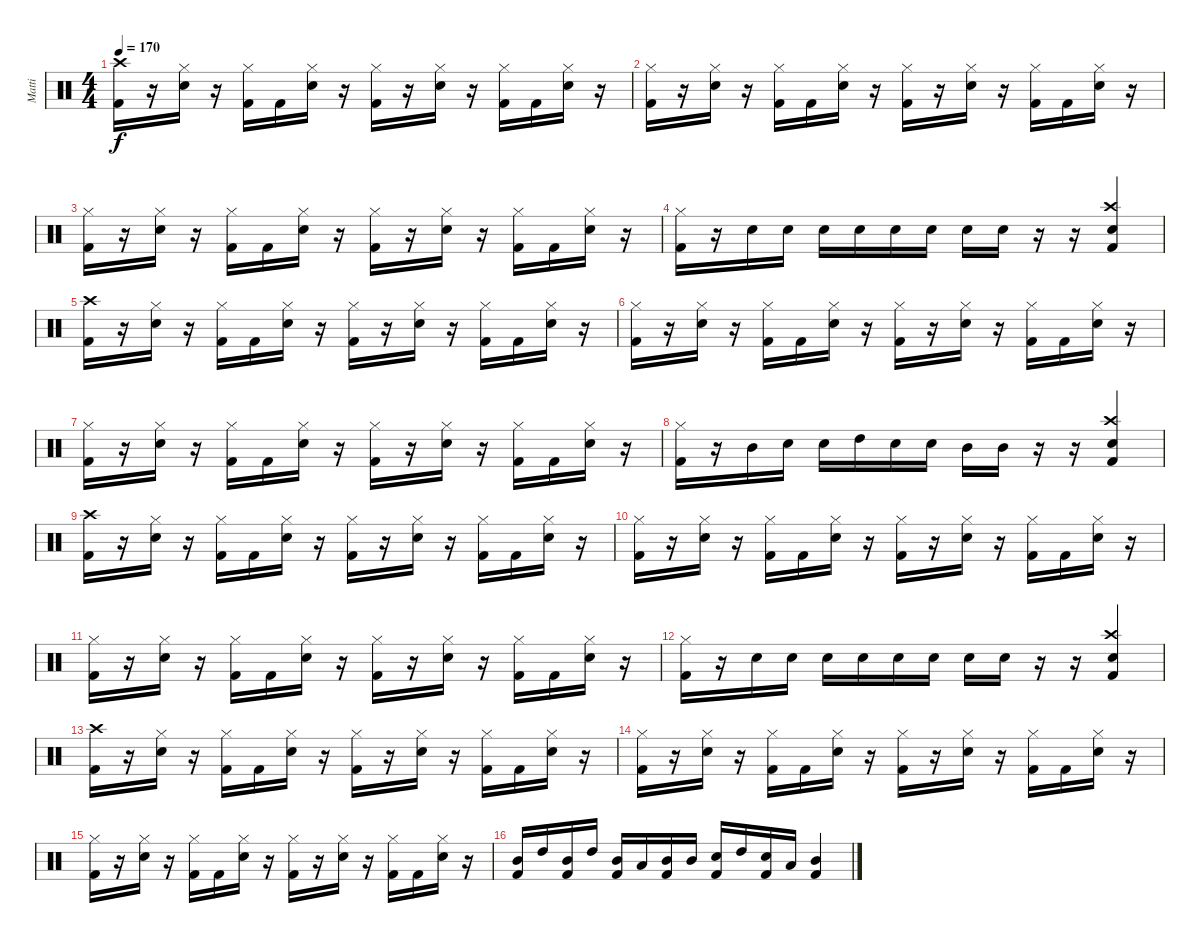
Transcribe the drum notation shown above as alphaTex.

\track ("Matti" "Matti") {instrument percussion}
\staff {score}
\articulation defaults
\ts (4 4)
\tempo 170
\clef neutral
\ks c
("Kick (hit) 2" "Crash high (hit)").16{dy f} r.16 ("Snare (hit) 2" "Hi-Hat (closed)").16 r.16 ("Kick (hit) 2" "Hi-Hat (closed)").16 "Kick (hit) 2".16 ("Snare (hit) 2" "Hi-Hat (closed)").16 r.16 ("Kick (hit) 2" "Hi-Hat (closed)").16 r.16 ("Snare (hit) 2" "Hi-Hat (closed)").16 r.16 ("Kick (hit) 2" "Hi-Hat (closed)").16 "Kick (hit) 2".16 ("Snare (hit) 2" "Hi-Hat (closed)").16 r.16 |
("Kick (hit) 2" "Hi-Hat (closed)").16 r.16 ("Snare (hit) 2" "Hi-Hat (closed)").16 r.16 ("Kick (hit) 2" "Hi-Hat (closed)").16 "Kick (hit) 2".16 ("Snare (hit) 2" "Hi-Hat (closed)").16 r.16 ("Kick (hit) 2" "Hi-Hat (closed)").16 r.16 ("Snare (hit) 2" "Hi-Hat (closed)").16 r.16 ("Kick (hit) 2" "Hi-Hat (closed)").16 "Kick (hit) 2".16 ("Snare (hit) 2" "Hi-Hat (closed)").16 r.16 |
("Kick (hit) 2" "Hi-Hat (closed)").16 r.16 ("Snare (hit) 2" "Hi-Hat (closed)").16 r.16 ("Kick (hit) 2" "Hi-Hat (closed)").16 "Kick (hit) 2".16 ("Snare (hit) 2" "Hi-Hat (closed)").16 r.16 ("Kick (hit) 2" "Hi-Hat (closed)").16 r.16 ("Snare (hit) 2" "Hi-Hat (closed)").16 r.16 ("Kick (hit) 2" "Hi-Hat (closed)").16 "Kick (hit) 2".16 ("Snare (hit) 2" "Hi-Hat (closed)").16 r.16 |
("Kick (hit) 2" "Hi-Hat (closed)").16 r.16 "Snare (hit) 2".16 "Snare (hit) 2".16 "Snare (hit) 2".16 "Snare (hit) 2".16 "Snare (hit) 2".16 "Snare (hit) 2".16 "Snare (hit) 2".16 "Snare (hit) 2".16 r.16 r.16 ("Crash high (hit)" "Kick (hit) 2" "Snare (hit) 2").4 |
("Kick (hit) 2" "Crash high (hit)").16 r.16 ("Snare (hit) 2" "Hi-Hat (closed)").16 r.16 ("Kick (hit) 2" "Hi-Hat (closed)").16 "Kick (hit) 2".16 ("Snare (hit) 2" "Hi-Hat (closed)").16 r.16 ("Kick (hit) 2" "Hi-Hat (closed)").16 r.16 ("Snare (hit) 2" "Hi-Hat (closed)").16 r.16 ("Kick (hit) 2" "Hi-Hat (closed)").16 "Kick (hit) 2".16 ("Snare (hit) 2" "Hi-Hat (closed)").16 r.16 |
("Kick (hit) 2" "Hi-Hat (closed)").16 r.16 ("Snare (hit) 2" "Hi-Hat (closed)").16 r.16 ("Kick (hit) 2" "Hi-Hat (closed)").16 "Kick (hit) 2".16 ("Snare (hit) 2" "Hi-Hat (closed)").16 r.16 ("Kick (hit) 2" "Hi-Hat (closed)").16 r.16 ("Snare (hit) 2" "Hi-Hat (closed)").16 r.16 ("Kick (hit) 2" "Hi-Hat (closed)").16 "Kick (hit) 2".16 ("Snare (hit) 2" "Hi-Hat (closed)").16 r.16 |
("Kick (hit) 2" "Hi-Hat (closed)").16 r.16 ("Snare (hit) 2" "Hi-Hat (closed)").16 r.16 ("Kick (hit) 2" "Hi-Hat (closed)").16 "Kick (hit) 2".16 ("Snare (hit) 2" "Hi-Hat (closed)").16 r.16 ("Kick (hit) 2" "Hi-Hat (closed)").16 r.16 ("Snare (hit) 2" "Hi-Hat (closed)").16 r.16 ("Kick (hit) 2" "Hi-Hat (closed)").16 "Kick (hit) 2".16 ("Snare (hit) 2" "Hi-Hat (closed)").16 r.16 |
("Kick (hit) 2" "Hi-Hat (closed)").16 r.16 "Mid Tom (hit)".16 "Snare (hit) 2".16 "Snare (hit) 2".16 "High Tom (hit)".16 "Snare (hit) 2".16 "Snare (hit) 2".16 "Mid Tom (hit)".16 "Mid Tom (hit)".16 r.16 r.16 ("Crash high (hit)" "Kick (hit) 2" "Snare (hit) 2").4 |
("Kick (hit) 2" "Crash high (hit)").16 r.16 ("Snare (hit) 2" "Hi-Hat (closed)").16 r.16 ("Kick (hit) 2" "Hi-Hat (closed)").16 "Kick (hit) 2".16 ("Snare (hit) 2" "Hi-Hat (closed)").16 r.16 ("Kick (hit) 2" "Hi-Hat (closed)").16 r.16 ("Snare (hit) 2" "Hi-Hat (closed)").16 r.16 ("Kick (hit) 2" "Hi-Hat (closed)").16 "Kick (hit) 2".16 ("Snare (hit) 2" "Hi-Hat (closed)").16 r.16 |
("Kick (hit) 2" "Hi-Hat (closed)").16 r.16 ("Snare (hit) 2" "Hi-Hat (closed)").16 r.16 ("Kick (hit) 2" "Hi-Hat (closed)").16 "Kick (hit) 2".16 ("Snare (hit) 2" "Hi-Hat (closed)").16 r.16 ("Kick (hit) 2" "Hi-Hat (closed)").16 r.16 ("Snare (hit) 2" "Hi-Hat (closed)").16 r.16 ("Kick (hit) 2" "Hi-Hat (closed)").16 "Kick (hit) 2".16 ("Snare (hit) 2" "Hi-Hat (closed)").16 r.16 |
("Kick (hit) 2" "Hi-Hat (closed)").16 r.16 ("Snare (hit) 2" "Hi-Hat (closed)").16 r.16 ("Kick (hit) 2" "Hi-Hat (closed)").16 "Kick (hit) 2".16 ("Snare (hit) 2" "Hi-Hat (closed)").16 r.16 ("Kick (hit) 2" "Hi-Hat (closed)").16 r.16 ("Snare (hit) 2" "Hi-Hat (closed)").16 r.16 ("Kick (hit) 2" "Hi-Hat (closed)").16 "Kick (hit) 2".16 ("Snare (hit) 2" "Hi-Hat (closed)").16 r.16 |
("Kick (hit) 2" "Hi-Hat (closed)").16 r.16 "Snare (hit) 2".16 "Snare (hit) 2".16 "Snare (hit) 2".16 "Snare (hit) 2".16 "Snare (hit) 2".16 "Snare (hit) 2".16 "Snare (hit) 2".16 "Snare (hit) 2".16 r.16 r.16 ("Crash high (hit)" "Kick (hit) 2" "Snare (hit) 2").4 |
("Kick (hit) 2" "Crash high (hit)").16 r.16 ("Snare (hit) 2" "Hi-Hat (closed)").16 r.16 ("Kick (hit) 2" "Hi-Hat (closed)").16 "Kick (hit) 2".16 ("Snare (hit) 2" "Hi-Hat (closed)").16 r.16 ("Kick (hit) 2" "Hi-Hat (closed)").16 r.16 ("Snare (hit) 2" "Hi-Hat (closed)").16 r.16 ("Kick (hit) 2" "Hi-Hat (closed)").16 "Kick (hit) 2".16 ("Snare (hit) 2" "Hi-Hat (closed)").16 r.16 |
("Kick (hit) 2" "Hi-Hat (closed)").16 r.16 ("Snare (hit) 2" "Hi-Hat (closed)").16 r.16 ("Kick (hit) 2" "Hi-Hat (closed)").16 "Kick (hit) 2".16 ("Snare (hit) 2" "Hi-Hat (closed)").16 r.16 ("Kick (hit) 2" "Hi-Hat (closed)").16 r.16 ("Snare (hit) 2" "Hi-Hat (closed)").16 r.16 ("Kick (hit) 2" "Hi-Hat (closed)").16 "Kick (hit) 2".16 ("Snare (hit) 2" "Hi-Hat (closed)").16 r.16 |
("Kick (hit) 2" "Hi-Hat (closed)").16 r.16 ("Snare (hit) 2" "Hi-Hat (closed)").16 r.16 ("Kick (hit) 2" "Hi-Hat (closed)").16 "Kick (hit) 2".16 ("Snare (hit) 2" "Hi-Hat (closed)").16 r.16 ("Kick (hit) 2" "Hi-Hat (closed)").16 r.16 ("Snare (hit) 2" "Hi-Hat (closed)").16 r.16 ("Kick (hit) 2" "Hi-Hat (closed)").16 "Kick (hit) 2".16 ("Snare (hit) 2" "Hi-Hat (closed)").16 r.16 |
("Mid Tom (hit)" "Kick (hit) 2").16 "High Tom (hit)".16 ("Mid Tom (hit)" "Kick (hit) 2").16 "High Tom (hit)".16 ("Mid Tom (hit)" "Kick (hit) 2").16 "Low Tom (hit)".16 ("Mid Tom (hit)" "Kick (hit) 2").16 "Mid Tom (hit)".16 ("Electric Snare (hit)" "Kick (hit) 2").16 "High Tom (hit)".16 ("Electric Snare (hit)" "Kick (hit) 2").16 "Low Tom (hit)".16 ("Mid Tom (hit)" "Kick (hit) 2").4
